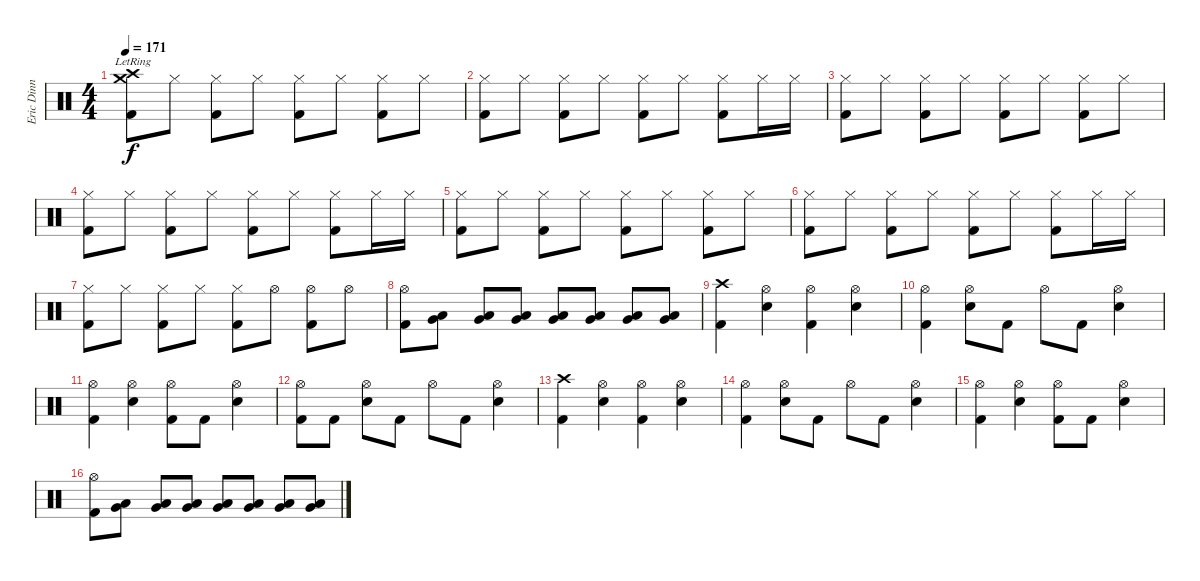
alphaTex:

\track ("Eric Dinn" "Eric Dinn") {instrument percussion}
\staff {score}
\articulation defaults
\ts (4 4)
\tempo 171
\clef neutral
\ks c
("Crash high (hit)"{lr} "Crash medium (hit)"{lr} "Kick (hit) 2").8{dy f} "Hi-Hat (closed)".8 ("Hi-Hat (closed)" "Kick (hit) 2").8 "Hi-Hat (closed)".8 ("Hi-Hat (closed)" "Kick (hit) 2").8 "Hi-Hat (closed)".8 ("Hi-Hat (closed)" "Kick (hit) 2").8 "Hi-Hat (closed)".8 |
("Hi-Hat (closed)" "Kick (hit) 2").8 "Hi-Hat (closed)".8 ("Hi-Hat (closed)" "Kick (hit) 2").8 "Hi-Hat (closed)".8 ("Hi-Hat (closed)" "Kick (hit) 2").8 "Hi-Hat (closed)".8 ("Hi-Hat (closed)" "Kick (hit) 2").8 "Hi-Hat (closed)".16 "Hi-Hat (closed)".16 |
("Hi-Hat (closed)" "Kick (hit) 2").8 "Hi-Hat (closed)".8 ("Hi-Hat (closed)" "Kick (hit) 2").8 "Hi-Hat (closed)".8 ("Hi-Hat (closed)" "Kick (hit) 2").8 "Hi-Hat (closed)".8 ("Hi-Hat (closed)" "Kick (hit) 2").8 "Hi-Hat (closed)".8 |
("Hi-Hat (closed)" "Kick (hit) 2").8 "Hi-Hat (closed)".8 ("Hi-Hat (closed)" "Kick (hit) 2").8 "Hi-Hat (closed)".8 ("Hi-Hat (closed)" "Kick (hit) 2").8 "Hi-Hat (closed)".8 ("Hi-Hat (closed)" "Kick (hit) 2").8 "Hi-Hat (closed)".16 "Hi-Hat (closed)".16 |
("Hi-Hat (closed)" "Kick (hit) 2").8 "Hi-Hat (closed)".8 ("Hi-Hat (closed)" "Kick (hit) 2").8 "Hi-Hat (closed)".8 ("Hi-Hat (closed)" "Kick (hit) 2").8 "Hi-Hat (closed)".8 ("Hi-Hat (closed)" "Kick (hit) 2").8 "Hi-Hat (closed)".8 |
("Hi-Hat (closed)" "Kick (hit) 2").8 "Hi-Hat (closed)".8 ("Hi-Hat (closed)" "Kick (hit) 2").8 "Hi-Hat (closed)".8 ("Hi-Hat (closed)" "Kick (hit) 2").8 "Hi-Hat (closed)".8 ("Hi-Hat (closed)" "Kick (hit) 2").8 "Hi-Hat (closed)".16 "Hi-Hat (closed)".16 |
("Hi-Hat (closed)" "Kick (hit) 2").8 "Hi-Hat (closed)".8 ("Hi-Hat (closed)" "Kick (hit) 2").8 "Hi-Hat (closed)".8 ("Hi-Hat (closed)" "Kick (hit) 2").8 "Hi-Hat (open)".8 ("Hi-Hat (open)" "Kick (hit) 2").8 "Hi-Hat (open)".8 |
("Hi-Hat (open)" "Kick (hit) 2").8 ("Very Low Tom (hit)" "Low Tom (hit)").8 ("Very Low Tom (hit)" "Low Tom (hit)").8 ("Very Low Tom (hit)" "Low Tom (hit)").8 ("Very Low Tom (hit)" "Low Tom (hit)").8 ("Very Low Tom (hit)" "Low Tom (hit)").8 ("Very Low Tom (hit)" "Low Tom (hit)").8 ("Very Low Tom (hit)" "Low Tom (hit)").8 |
("Crash high (hit)" "Kick (hit) 2").4 ("Hi-Hat (open)" "Snare (hit) 2").4 ("Hi-Hat (open)" "Kick (hit) 2").4 ("Hi-Hat (open)" "Snare (hit) 2").4 |
("Hi-Hat (open)" "Kick (hit) 2").4 ("Hi-Hat (open)" "Snare (hit) 2").8 "Kick (hit) 2".8 "Hi-Hat (open)".8 "Kick (hit) 2".8 ("Hi-Hat (open)" "Snare (hit) 2").4 |
("Hi-Hat (open)" "Kick (hit) 2").4 ("Hi-Hat (open)" "Snare (hit) 2").4 ("Hi-Hat (open)" "Kick (hit) 2").8 "Kick (hit) 2".8 ("Hi-Hat (open)" "Snare (hit) 2").4 |
("Hi-Hat (open)" "Kick (hit) 2").8 "Kick (hit) 2".8 ("Hi-Hat (open)" "Snare (hit) 2").8 "Kick (hit) 2".8 "Hi-Hat (open)".8 "Kick (hit) 2".8 ("Hi-Hat (open)" "Snare (hit) 2").4 |
("Crash high (hit)" "Kick (hit) 2").4 ("Hi-Hat (open)" "Snare (hit) 2").4 ("Hi-Hat (open)" "Kick (hit) 2").4 ("Hi-Hat (open)" "Snare (hit) 2").4 |
("Hi-Hat (open)" "Kick (hit) 2").4 ("Hi-Hat (open)" "Snare (hit) 2").8 "Kick (hit) 2".8 "Hi-Hat (open)".8 "Kick (hit) 2".8 ("Hi-Hat (open)" "Snare (hit) 2").4 |
("Hi-Hat (open)" "Kick (hit) 2").4 ("Hi-Hat (open)" "Snare (hit) 2").4 ("Hi-Hat (open)" "Kick (hit) 2").8 "Kick (hit) 2".8 ("Hi-Hat (open)" "Snare (hit) 2").4 |
("Hi-Hat (open)" "Kick (hit) 2").8 ("Very Low Tom (hit)" "Low Tom (hit)").8 ("Very Low Tom (hit)" "Low Tom (hit)").8 ("Very Low Tom (hit)" "Low Tom (hit)").8 ("Very Low Tom (hit)" "Low Tom (hit)").8 ("Very Low Tom (hit)" "Low Tom (hit)").8 ("Very Low Tom (hit)" "Low Tom (hit)").8 ("Very Low Tom (hit)" "Low Tom (hit)").8
